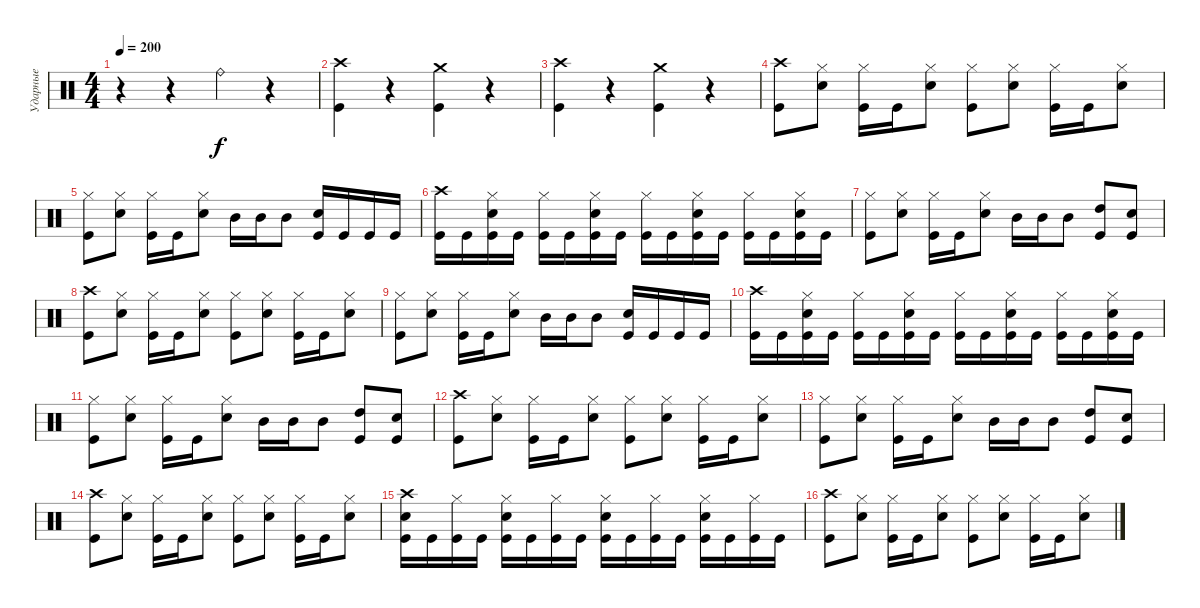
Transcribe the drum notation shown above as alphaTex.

\track ("Ударные" "Ударные") {instrument percussion}
\staff {score}
\articulation defaults
\ts (4 4)
\tempo 200
\clef neutral
\ks c
r.4{dy f} r.4 "Ride (bell)".4 r.4 |
("Crash high (hit)" "Kick (hit)").4 r.4 ("Crash medium (hit)" "Kick (hit)").4 r.4 |
("Crash high (hit)" "Kick (hit)").4 r.4 ("Crash medium (hit)" "Kick (hit)").4 r.4 |
("Crash high (hit)" "Kick (hit)").8 ("Hi-Hat (closed)" "Electric Snare (hit)").8 ("Hi-Hat (closed)" "Kick (hit)").16 "Kick (hit)".16 ("Hi-Hat (closed)" "Electric Snare (hit)").8 ("Hi-Hat (closed)" "Kick (hit)").8 ("Hi-Hat (closed)" "Electric Snare (hit)").8 ("Hi-Hat (closed)" "Kick (hit)").16 "Kick (hit)".16 ("Hi-Hat (closed)" "Electric Snare (hit)").8 |
("Hi-Hat (closed)" "Kick (hit)").8 ("Hi-Hat (closed)" "Electric Snare (hit)").8 ("Hi-Hat (closed)" "Kick (hit)").16 "Kick (hit)".16 ("Hi-Hat (closed)" "Electric Snare (hit)").8 "Mid Tom (hit)".16 "Mid Tom (hit)".16 "Mid Tom (hit)".8 ("Electric Snare (hit)" "Kick (hit)").16 "Kick (hit)".16 "Kick (hit)".16 "Kick (hit)".16 |
("Crash high (hit)" "Kick (hit)").16 "Kick (hit)".16 ("Hi-Hat (closed)" "Electric Snare (hit)" "Kick (hit)").16 "Kick (hit)".16 ("Hi-Hat (closed)" "Kick (hit)").16 "Kick (hit)".16 ("Hi-Hat (closed)" "Electric Snare (hit)" "Kick (hit)").16 "Kick (hit)".16 ("Hi-Hat (closed)" "Kick (hit)").16 "Kick (hit)".16 ("Hi-Hat (closed)" "Electric Snare (hit)" "Kick (hit)").16 "Kick (hit)".16 ("Hi-Hat (closed)" "Kick (hit)").16 "Kick (hit)".16 ("Hi-Hat (closed)" "Electric Snare (hit)" "Kick (hit)").16 "Kick (hit)".16 |
("Hi-Hat (closed)" "Kick (hit)").8 ("Hi-Hat (closed)" "Electric Snare (hit)").8 ("Hi-Hat (closed)" "Kick (hit)").16 "Kick (hit)".16 ("Hi-Hat (closed)" "Electric Snare (hit)").8 "Mid Tom (hit)".16 "Mid Tom (hit)".16 "Mid Tom (hit)".8 ("High Tom (hit)" "Kick (hit)").8 ("Electric Snare (hit)" "Kick (hit)").8 |
("Crash high (hit)" "Kick (hit)").8 ("Hi-Hat (closed)" "Electric Snare (hit)").8 ("Hi-Hat (closed)" "Kick (hit)").16 "Kick (hit)".16 ("Hi-Hat (closed)" "Electric Snare (hit)").8 ("Hi-Hat (closed)" "Kick (hit)").8 ("Hi-Hat (closed)" "Electric Snare (hit)").8 ("Hi-Hat (closed)" "Kick (hit)").16 "Kick (hit)".16 ("Hi-Hat (closed)" "Electric Snare (hit)").8 |
("Hi-Hat (closed)" "Kick (hit)").8 ("Hi-Hat (closed)" "Electric Snare (hit)").8 ("Hi-Hat (closed)" "Kick (hit)").16 "Kick (hit)".16 ("Hi-Hat (closed)" "Electric Snare (hit)").8 "Mid Tom (hit)".16 "Mid Tom (hit)".16 "Mid Tom (hit)".8 ("Electric Snare (hit)" "Kick (hit)").16 "Kick (hit)".16 "Kick (hit)".16 "Kick (hit)".16 |
("Crash high (hit)" "Kick (hit)").16 "Kick (hit)".16 ("Hi-Hat (closed)" "Electric Snare (hit)" "Kick (hit)").16 "Kick (hit)".16 ("Hi-Hat (closed)" "Kick (hit)").16 "Kick (hit)".16 ("Hi-Hat (closed)" "Electric Snare (hit)" "Kick (hit)").16 "Kick (hit)".16 ("Hi-Hat (closed)" "Kick (hit)").16 "Kick (hit)".16 ("Hi-Hat (closed)" "Electric Snare (hit)" "Kick (hit)").16 "Kick (hit)".16 ("Hi-Hat (closed)" "Kick (hit)").16 "Kick (hit)".16 ("Hi-Hat (closed)" "Electric Snare (hit)" "Kick (hit)").16 "Kick (hit)".16 |
("Hi-Hat (closed)" "Kick (hit)").8 ("Hi-Hat (closed)" "Electric Snare (hit)").8 ("Hi-Hat (closed)" "Kick (hit)").16 "Kick (hit)".16 ("Hi-Hat (closed)" "Electric Snare (hit)").8 "Mid Tom (hit)".16 "Mid Tom (hit)".16 "Mid Tom (hit)".8 ("High Tom (hit)" "Kick (hit)").8 ("Electric Snare (hit)" "Kick (hit)").8 |
("Crash high (hit)" "Kick (hit)").8 ("Hi-Hat (closed)" "Electric Snare (hit)").8 ("Hi-Hat (closed)" "Kick (hit)").16 "Kick (hit)".16 ("Hi-Hat (closed)" "Electric Snare (hit)").8 ("Hi-Hat (closed)" "Kick (hit)").8 ("Hi-Hat (closed)" "Electric Snare (hit)").8 ("Hi-Hat (closed)" "Kick (hit)").16 "Kick (hit)".16 ("Hi-Hat (closed)" "Electric Snare (hit)").8 |
("Hi-Hat (closed)" "Kick (hit)").8 ("Hi-Hat (closed)" "Electric Snare (hit)").8 ("Hi-Hat (closed)" "Kick (hit)").16 "Kick (hit)".16 ("Hi-Hat (closed)" "Electric Snare (hit)").8 "Mid Tom (hit)".16 "Mid Tom (hit)".16 "Mid Tom (hit)".8 ("High Tom (hit)" "Kick (hit)").8 ("Electric Snare (hit)" "Kick (hit)").8 |
("Crash high (hit)" "Kick (hit)").8 ("Hi-Hat (closed)" "Electric Snare (hit)").8 ("Hi-Hat (closed)" "Kick (hit)").16 "Kick (hit)".16 ("Hi-Hat (closed)" "Electric Snare (hit)").8 ("Hi-Hat (closed)" "Kick (hit)").8 ("Hi-Hat (closed)" "Electric Snare (hit)").8 ("Hi-Hat (closed)" "Kick (hit)").16 "Kick (hit)".16 ("Hi-Hat (closed)" "Electric Snare (hit)").8 |
("Crash high (hit)" "Electric Snare (hit)" "Kick (hit)").16 "Kick (hit)".16 ("Hi-Hat (closed)" "Kick (hit)").16 "Kick (hit)".16 ("Hi-Hat (closed)" "Electric Snare (hit)" "Kick (hit)").16 "Kick (hit)".16 ("Hi-Hat (closed)" "Kick (hit)").16 "Kick (hit)".16 ("Hi-Hat (closed)" "Electric Snare (hit)" "Kick (hit)").16 "Kick (hit)".16 ("Hi-Hat (closed)" "Kick (hit)").16 "Kick (hit)".16 ("Hi-Hat (closed)" "Electric Snare (hit)" "Kick (hit)").16 "Kick (hit)".16 ("Hi-Hat (closed)" "Kick (hit)").16 "Kick (hit)".16 |
("Crash high (hit)" "Kick (hit)").8 ("Hi-Hat (closed)" "Electric Snare (hit)").8 ("Hi-Hat (closed)" "Kick (hit)").16 "Kick (hit)".16 ("Hi-Hat (closed)" "Electric Snare (hit)").8 ("Hi-Hat (closed)" "Kick (hit)").8 ("Hi-Hat (closed)" "Electric Snare (hit)").8 ("Hi-Hat (closed)" "Kick (hit)").16 "Kick (hit)".16 ("Hi-Hat (closed)" "Electric Snare (hit)").8
